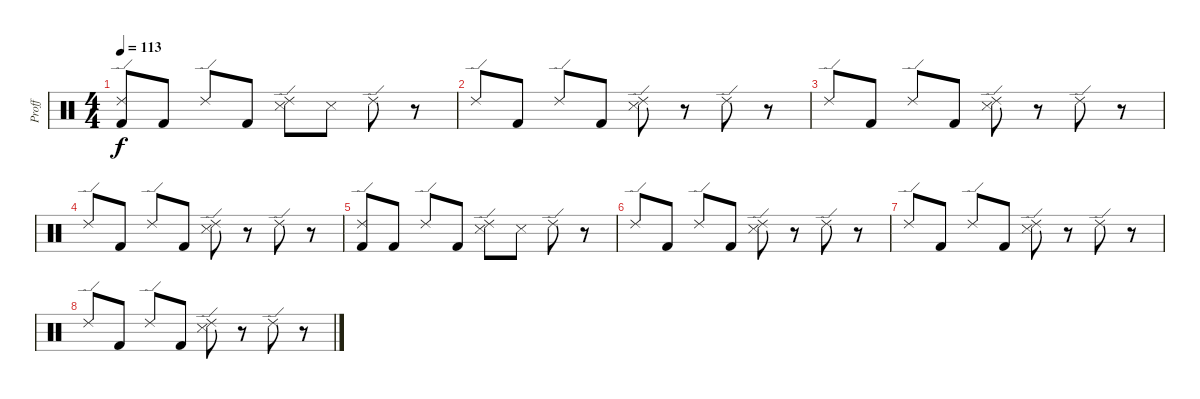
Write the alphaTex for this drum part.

\track ("Proff" "Proff") {instrument percussion}
\staff {score}
\articulation defaults
\ts (4 4)
\tempo 113
\clef neutral
\ks c
("Ride (edge) 2" "Kick (hit) 2").8{dy f} "Kick (hit) 2".8 "Ride (edge) 2".8 "Kick (hit) 2".8 ("Ride (edge) 2" "Metronome (hit)").8 "Metronome (hit)".8 "Ride (edge) 2".8 r.8 |
"Ride (edge) 2".8 "Kick (hit) 2".8 "Ride (edge) 2".8 "Kick (hit) 2".8 ("Ride (edge) 2" "Metronome (hit)").8 r.8 "Ride (edge) 2".8 r.8 |
"Ride (edge) 2".8 "Kick (hit) 2".8 "Ride (edge) 2".8 "Kick (hit) 2".8 ("Ride (edge) 2" "Metronome (hit)").8 r.8 "Ride (edge) 2".8 r.8 |
"Ride (edge) 2".8 "Kick (hit) 2".8 "Ride (edge) 2".8 "Kick (hit) 2".8 ("Ride (edge) 2" "Metronome (hit)").8 r.8 "Ride (edge) 2".8 r.8 |
("Ride (edge) 2" "Kick (hit) 2").8 "Kick (hit) 2".8 "Ride (edge) 2".8 "Kick (hit) 2".8 ("Ride (edge) 2" "Metronome (hit)").8 "Metronome (hit)".8 "Ride (edge) 2".8 r.8 |
"Ride (edge) 2".8 "Kick (hit) 2".8 "Ride (edge) 2".8 "Kick (hit) 2".8 ("Ride (edge) 2" "Metronome (hit)").8 r.8 "Ride (edge) 2".8 r.8 |
"Ride (edge) 2".8 "Kick (hit) 2".8 "Ride (edge) 2".8 "Kick (hit) 2".8 ("Ride (edge) 2" "Metronome (hit)").8 r.8 "Ride (edge) 2".8 r.8 |
"Ride (edge) 2".8 "Kick (hit) 2".8 "Ride (edge) 2".8 "Kick (hit) 2".8 ("Ride (edge) 2" "Metronome (hit)").8 r.8 "Ride (edge) 2".8 r.8
